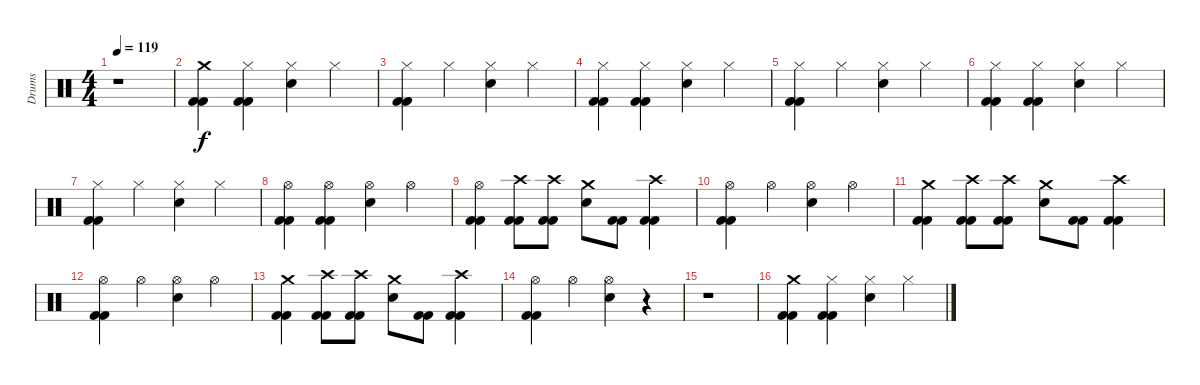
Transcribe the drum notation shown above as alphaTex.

\track ("Drums" "Drums") {instrument percussion}
\staff {score}
\articulation defaults
\ts (4 4)
\tempo 119
\clef neutral
\ks c
r.1{dy f} |
("Crash medium (hit)" "Kick (hit) 2" "Kick (hit) 2").4 ("Hi-Hat (closed)" "Kick (hit) 2" "Kick (hit) 2").4 ("Hi-Hat (closed)" "Electric Snare (hit)").4 "Hi-Hat (closed)".4 |
("Hi-Hat (closed)" "Kick (hit) 2" "Kick (hit) 2").4 "Hi-Hat (closed)".4 ("Hi-Hat (closed)" "Electric Snare (hit)").4 "Hi-Hat (closed)".4 |
("Hi-Hat (closed)" "Kick (hit) 2" "Kick (hit) 2").4 ("Hi-Hat (closed)" "Kick (hit) 2" "Kick (hit) 2").4 ("Hi-Hat (closed)" "Electric Snare (hit)").4 "Hi-Hat (closed)".4 |
("Hi-Hat (closed)" "Kick (hit) 2" "Kick (hit) 2").4 "Hi-Hat (closed)".4 ("Hi-Hat (closed)" "Electric Snare (hit)").4 "Hi-Hat (closed)".4 |
("Hi-Hat (closed)" "Kick (hit) 2" "Kick (hit) 2").4 ("Hi-Hat (closed)" "Kick (hit) 2" "Kick (hit) 2").4 ("Hi-Hat (closed)" "Electric Snare (hit)").4 "Hi-Hat (closed)".4 |
("Hi-Hat (closed)" "Kick (hit) 2" "Kick (hit) 2").4 "Hi-Hat (closed)".4 ("Hi-Hat (closed)" "Electric Snare (hit)").4 "Hi-Hat (closed)".4 |
("Hi-Hat (open)" "Kick (hit) 2" "Kick (hit) 2").4 ("Hi-Hat (open)" "Kick (hit) 2" "Kick (hit) 2").4 ("Hi-Hat (open)" "Electric Snare (hit)").4 "Hi-Hat (open)".4 |
("Hi-Hat (open)" "Kick (hit) 2" "Kick (hit) 2").4 ("Crash high (hit)" "Kick (hit) 2" "Kick (hit) 2").8 ("Crash high (hit)" "Kick (hit) 2" "Kick (hit) 2").8 ("Crash medium (hit)" "Electric Snare (hit)").8 ("Kick (hit) 2" "Kick (hit) 2").8 ("Crash high (hit)" "Kick (hit) 2" "Kick (hit) 2").4 |
("Hi-Hat (open)" "Kick (hit) 2" "Kick (hit) 2").4 "Hi-Hat (open)".4 ("Hi-Hat (open)" "Electric Snare (hit)").4 "Hi-Hat (open)".4 |
("Crash medium (hit)" "Kick (hit) 2" "Kick (hit) 2").4 ("Crash high (hit)" "Kick (hit) 2" "Kick (hit) 2").8 ("Crash high (hit)" "Kick (hit) 2" "Kick (hit) 2").8 ("Crash medium (hit)" "Electric Snare (hit)").8 ("Kick (hit) 2" "Kick (hit) 2").8 ("Crash high (hit)" "Kick (hit) 2" "Kick (hit) 2").4 |
("Hi-Hat (open)" "Kick (hit) 2" "Kick (hit) 2").4 "Hi-Hat (open)".4 ("Hi-Hat (open)" "Electric Snare (hit)").4 "Hi-Hat (open)".4 |
("Crash medium (hit)" "Kick (hit) 2" "Kick (hit) 2").4 ("Crash high (hit)" "Kick (hit) 2" "Kick (hit) 2").8 ("Crash high (hit)" "Kick (hit) 2" "Kick (hit) 2").8 ("Crash medium (hit)" "Electric Snare (hit)").8 ("Kick (hit) 2" "Kick (hit) 2").8 ("Crash high (hit)" "Kick (hit) 2" "Kick (hit) 2").4 |
("Hi-Hat (open)" "Kick (hit) 2" "Kick (hit) 2").4 "Hi-Hat (open)".4 ("Hi-Hat (open)" "Electric Snare (hit)").4 r.4 |
r.1 |
("Crash medium (hit)" "Kick (hit) 2" "Kick (hit) 2").4 ("Hi-Hat (closed)" "Kick (hit) 2" "Kick (hit) 2").4 ("Hi-Hat (closed)" "Electric Snare (hit)").4 "Hi-Hat (closed)".4
